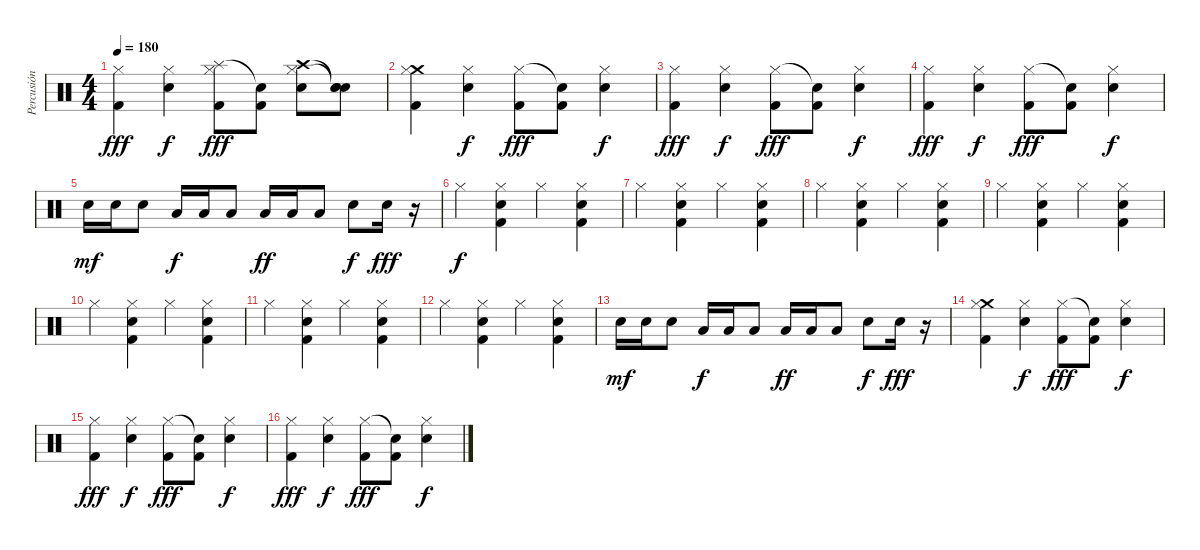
\track ("Percusión" "Percusión") {instrument percussion}
\staff {score}
\articulation defaults
\ts (4 4)
\tempo 180
\clef neutral
\ks c
("Hi-Hat (closed)" "Kick (hit) 2").4{dy fff} ("Snare (hit) 2" "Hi-Hat (closed)").4{dy f} ("Splash (hit)" "Hi-Hat (closed)" "Kick (hit) 2").8{dy fff} ("Snare (hit)"{t} "Kick (hit) 2").8 ("Crash high (hit)" "Snare (hit) 2" "Hi-Hat (closed)").8 ("Snare (hit)"{t} "Snare (hit) 2" "Snare (hit)"{t}).8 |
("Crash medium (hit)" "Hi-Hat (closed)" "Kick (hit) 2").4 ("Snare (hit) 2" "Hi-Hat (closed)").4{dy f} ("Hi-Hat (closed)" "Kick (hit) 2").8{dy fff} ("Snare (hit)"{t} "Kick (hit) 2").8 ("Snare (hit) 2" "Hi-Hat (closed)").4{dy f} |
("Hi-Hat (closed)" "Kick (hit) 2").4{dy fff} ("Snare (hit) 2" "Hi-Hat (closed)").4{dy f} ("Hi-Hat (closed)" "Kick (hit) 2").8{dy fff} ("Snare (hit)"{t} "Kick (hit) 2").8 ("Snare (hit) 2" "Hi-Hat (closed)").4{dy f} |
("Hi-Hat (closed)" "Kick (hit) 2").4{dy fff} ("Snare (hit) 2" "Hi-Hat (closed)").4{dy f} ("Hi-Hat (closed)" "Kick (hit) 2").8{dy fff} ("Snare (hit)"{t} "Kick (hit) 2").8 ("Snare (hit) 2" "Hi-Hat (closed)").4{dy f} |
"Snare (hit) 2".16{dy mf} "Snare (hit) 2".16 "Snare (hit) 2".8 "Low Tom (hit)".16{dy f} "Low Tom (hit)".16 "Low Tom (hit)".8 "Low Floor Tom (hit)".16{dy ff} "Low Floor Tom (hit)".16 "Low Floor Tom (hit)".8 "Electric Snare (hit)".8{dy f} "Electric Snare (hit)".16{dy fff} r.16 |
"Hi-Hat (closed)".4{dy f} ("Snare (hit) 2" "Hi-Hat (closed)" "Kick (hit) 2").4 "Hi-Hat (closed)".4 ("Snare (hit) 2" "Hi-Hat (closed)" "Kick (hit) 2").4 |
"Hi-Hat (closed)".4 ("Snare (hit) 2" "Hi-Hat (closed)" "Kick (hit) 2").4 "Hi-Hat (closed)".4 ("Snare (hit) 2" "Hi-Hat (closed)" "Kick (hit) 2").4 |
"Hi-Hat (closed)".4 ("Snare (hit) 2" "Hi-Hat (closed)" "Kick (hit) 2").4 "Hi-Hat (closed)".4 ("Snare (hit) 2" "Hi-Hat (closed)" "Kick (hit) 2").4 |
"Hi-Hat (closed)".4 ("Snare (hit) 2" "Hi-Hat (closed)" "Kick (hit) 2").4 "Hi-Hat (closed)".4 ("Snare (hit) 2" "Hi-Hat (closed)" "Kick (hit) 2").4 |
"Hi-Hat (closed)".4 ("Snare (hit) 2" "Hi-Hat (closed)" "Kick (hit) 2").4 "Hi-Hat (closed)".4 ("Snare (hit) 2" "Hi-Hat (closed)" "Kick (hit) 2").4 |
"Hi-Hat (closed)".4 ("Snare (hit) 2" "Hi-Hat (closed)" "Kick (hit) 2").4 "Hi-Hat (closed)".4 ("Snare (hit) 2" "Hi-Hat (closed)" "Kick (hit) 2").4 |
"Hi-Hat (closed)".4 ("Snare (hit) 2" "Hi-Hat (closed)" "Kick (hit) 2").4 "Hi-Hat (closed)".4 ("Snare (hit) 2" "Hi-Hat (closed)" "Kick (hit) 2").4 |
"Snare (hit) 2".16{dy mf} "Snare (hit) 2".16 "Snare (hit) 2".8 "Low Tom (hit)".16{dy f} "Low Tom (hit)".16 "Low Tom (hit)".8 "Low Floor Tom (hit)".16{dy ff} "Low Floor Tom (hit)".16 "Low Floor Tom (hit)".8 "Electric Snare (hit)".8{dy f} "Electric Snare (hit)".16{dy fff} r.16 |
("Crash medium (hit)" "Hi-Hat (closed)" "Kick (hit) 2").4 ("Snare (hit) 2" "Hi-Hat (closed)").4{dy f} ("Hi-Hat (closed)" "Kick (hit) 2").8{dy fff} ("Snare (hit)"{t} "Kick (hit) 2").8 ("Snare (hit) 2" "Hi-Hat (closed)").4{dy f} |
("Hi-Hat (closed)" "Kick (hit) 2").4{dy fff} ("Snare (hit) 2" "Hi-Hat (closed)").4{dy f} ("Hi-Hat (closed)" "Kick (hit) 2").8{dy fff} ("Snare (hit)"{t} "Kick (hit) 2").8 ("Snare (hit) 2" "Hi-Hat (closed)").4{dy f} |
("Hi-Hat (closed)" "Kick (hit) 2").4{dy fff} ("Snare (hit) 2" "Hi-Hat (closed)").4{dy f} ("Hi-Hat (closed)" "Kick (hit) 2").8{dy fff} ("Snare (hit)"{t} "Kick (hit) 2").8 ("Snare (hit) 2" "Hi-Hat (closed)").4{dy f}
